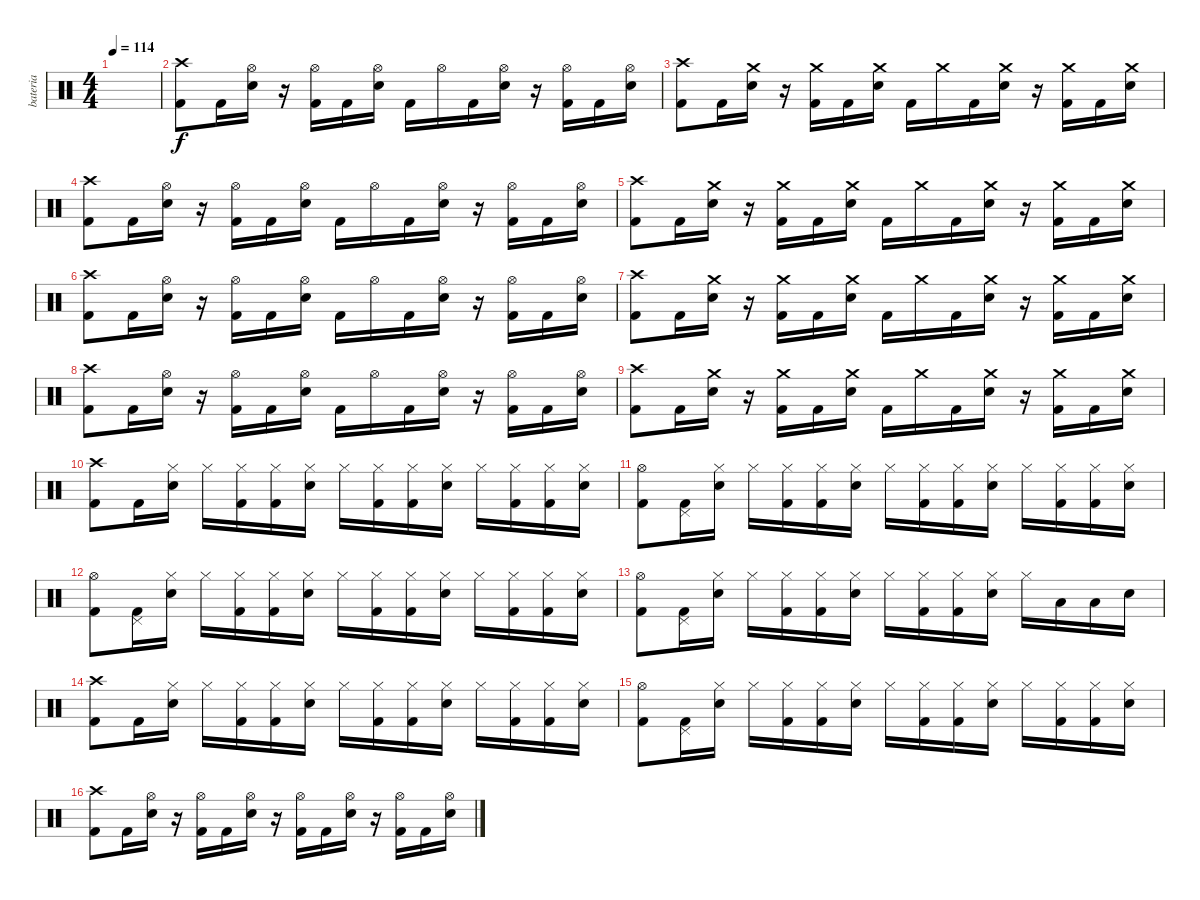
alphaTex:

\track ("bateria" "bateria") {instrument percussion}
\staff {score}
\articulation defaults
\ts (4 4)
\tempo 114
\clef neutral
\ks c
|
("Crash high (hit)" "Kick (hit) 2").8 "Kick (hit) 2".16 ("Hi-Hat (open)" "Electric Snare (hit)").16 r.16 ("Hi-Hat (open)" "Kick (hit) 2").16 "Kick (hit) 2".16 ("Hi-Hat (open)" "Electric Snare (hit)").16 "Kick (hit) 2".16 "Hi-Hat (open)".16 "Kick (hit) 2".16 ("Hi-Hat (open)" "Electric Snare (hit)").16 r.16 ("Hi-Hat (open)" "Kick (hit) 2").16 "Kick (hit) 2".16 ("Hi-Hat (open)" "Electric Snare (hit)").16 |
("Crash high (hit)" "Kick (hit) 2").8 "Kick (hit) 2".16 ("Crash medium (hit)" "Electric Snare (hit)").16 r.16 ("Crash medium (hit)" "Kick (hit) 2").16 "Kick (hit) 2".16 ("Crash medium (hit)" "Electric Snare (hit)").16 "Kick (hit) 2".16 "Crash medium (hit)".16 "Kick (hit) 2".16 ("Crash medium (hit)" "Electric Snare (hit)").16 r.16 ("Crash medium (hit)" "Kick (hit) 2").16 "Kick (hit) 2".16 ("Crash medium (hit)" "Electric Snare (hit)").16 |
("Crash high (hit)" "Kick (hit) 2").8 "Kick (hit) 2".16 ("Hi-Hat (open)" "Electric Snare (hit)").16 r.16 ("Hi-Hat (open)" "Kick (hit) 2").16 "Kick (hit) 2".16 ("Hi-Hat (open)" "Electric Snare (hit)").16 "Kick (hit) 2".16 "Hi-Hat (open)".16 "Kick (hit) 2".16 ("Hi-Hat (open)" "Electric Snare (hit)").16 r.16 ("Hi-Hat (open)" "Kick (hit) 2").16 "Kick (hit) 2".16 ("Hi-Hat (open)" "Electric Snare (hit)").16 |
("Crash high (hit)" "Kick (hit) 2").8 "Kick (hit) 2".16 ("Crash medium (hit)" "Electric Snare (hit)").16 r.16 ("Crash medium (hit)" "Kick (hit) 2").16 "Kick (hit) 2".16 ("Crash medium (hit)" "Electric Snare (hit)").16 "Kick (hit) 2".16 "Crash medium (hit)".16 "Kick (hit) 2".16 ("Crash medium (hit)" "Electric Snare (hit)").16 r.16 ("Crash medium (hit)" "Kick (hit) 2").16 "Kick (hit) 2".16 ("Crash medium (hit)" "Electric Snare (hit)").16 |
("Crash high (hit)" "Kick (hit) 2").8 "Kick (hit) 2".16 ("Hi-Hat (open)" "Electric Snare (hit)").16 r.16 ("Hi-Hat (open)" "Kick (hit) 2").16 "Kick (hit) 2".16 ("Hi-Hat (open)" "Electric Snare (hit)").16 "Kick (hit) 2".16 "Hi-Hat (open)".16 "Kick (hit) 2".16 ("Hi-Hat (open)" "Electric Snare (hit)").16 r.16 ("Hi-Hat (open)" "Kick (hit) 2").16 "Kick (hit) 2".16 ("Hi-Hat (open)" "Electric Snare (hit)").16 |
("Crash high (hit)" "Kick (hit) 2").8 "Kick (hit) 2".16 ("Crash medium (hit)" "Electric Snare (hit)").16 r.16 ("Crash medium (hit)" "Kick (hit) 2").16 "Kick (hit) 2".16 ("Crash medium (hit)" "Electric Snare (hit)").16 "Kick (hit) 2".16 "Crash medium (hit)".16 "Kick (hit) 2".16 ("Crash medium (hit)" "Electric Snare (hit)").16 r.16 ("Crash medium (hit)" "Kick (hit) 2").16 "Kick (hit) 2".16 ("Crash medium (hit)" "Electric Snare (hit)").16 |
("Crash high (hit)" "Kick (hit) 2").8 "Kick (hit) 2".16 ("Hi-Hat (open)" "Electric Snare (hit)").16 r.16 ("Hi-Hat (open)" "Kick (hit) 2").16 "Kick (hit) 2".16 ("Hi-Hat (open)" "Electric Snare (hit)").16 "Kick (hit) 2".16 "Hi-Hat (open)".16 "Kick (hit) 2".16 ("Hi-Hat (open)" "Electric Snare (hit)").16 r.16 ("Hi-Hat (open)" "Kick (hit) 2").16 "Kick (hit) 2".16 ("Hi-Hat (open)" "Electric Snare (hit)").16 |
("Crash high (hit)" "Kick (hit) 2").8 "Kick (hit) 2".16 ("Crash medium (hit)" "Electric Snare (hit)").16 r.16 ("Crash medium (hit)" "Kick (hit) 2").16 "Kick (hit) 2".16 ("Crash medium (hit)" "Electric Snare (hit)").16 "Kick (hit) 2".16 "Crash medium (hit)".16 "Kick (hit) 2".16 ("Crash medium (hit)" "Electric Snare (hit)").16 r.16 ("Crash medium (hit)" "Kick (hit) 2").16 "Kick (hit) 2".16 ("Crash medium (hit)" "Electric Snare (hit)").16 |
("Crash high (hit)" "Kick (hit) 2").8 "Kick (hit) 2".16 ("Hi-Hat (closed)" "Electric Snare (hit)").16 "Hi-Hat (closed)".16 ("Hi-Hat (closed)" "Kick (hit) 2").16 ("Hi-Hat (closed)" "Kick (hit) 2").16 ("Hi-Hat (closed)" "Electric Snare (hit)").16 "Hi-Hat (closed)".16 ("Hi-Hat (closed)" "Kick (hit) 2").16 ("Hi-Hat (closed)" "Kick (hit) 2").16 ("Hi-Hat (closed)" "Electric Snare (hit)").16 "Hi-Hat (closed)".16 ("Hi-Hat (closed)" "Kick (hit) 2").16 ("Hi-Hat (closed)" "Kick (hit) 2").16 ("Hi-Hat (closed)" "Electric Snare (hit)").16 |
("Hi-Hat (open)" "Kick (hit) 2").8 ("Pedal Hi-Hat (hit)" "Kick (hit) 2").16 ("Hi-Hat (closed)" "Electric Snare (hit)").16 "Hi-Hat (closed)".16 ("Hi-Hat (closed)" "Kick (hit) 2").16 ("Hi-Hat (closed)" "Kick (hit) 2").16 ("Hi-Hat (closed)" "Electric Snare (hit)").16 "Hi-Hat (closed)".16 ("Hi-Hat (closed)" "Kick (hit) 2").16 ("Hi-Hat (closed)" "Kick (hit) 2").16 ("Hi-Hat (closed)" "Electric Snare (hit)").16 "Hi-Hat (closed)".16 ("Hi-Hat (closed)" "Kick (hit) 2").16 ("Hi-Hat (closed)" "Kick (hit) 2").16 ("Hi-Hat (closed)" "Electric Snare (hit)").16 |
("Hi-Hat (open)" "Kick (hit) 2").8 ("Pedal Hi-Hat (hit)" "Kick (hit) 2").16 ("Hi-Hat (closed)" "Electric Snare (hit)").16 "Hi-Hat (closed)".16 ("Hi-Hat (closed)" "Kick (hit) 2").16 ("Hi-Hat (closed)" "Kick (hit) 2").16 ("Hi-Hat (closed)" "Electric Snare (hit)").16 "Hi-Hat (closed)".16 ("Hi-Hat (closed)" "Kick (hit) 2").16 ("Hi-Hat (closed)" "Kick (hit) 2").16 ("Hi-Hat (closed)" "Electric Snare (hit)").16 "Hi-Hat (closed)".16 ("Hi-Hat (closed)" "Kick (hit) 2").16 ("Hi-Hat (closed)" "Kick (hit) 2").16 ("Hi-Hat (closed)" "Electric Snare (hit)").16 |
("Hi-Hat (open)" "Kick (hit) 2").8 ("Pedal Hi-Hat (hit)" "Kick (hit) 2").16 ("Hi-Hat (closed)" "Electric Snare (hit)").16 "Hi-Hat (closed)".16 ("Hi-Hat (closed)" "Kick (hit) 2").16 ("Hi-Hat (closed)" "Kick (hit) 2").16 ("Hi-Hat (closed)" "Electric Snare (hit)").16 "Hi-Hat (closed)".16 ("Hi-Hat (closed)" "Kick (hit) 2").16 ("Hi-Hat (closed)" "Kick (hit) 2").16 ("Hi-Hat (closed)" "Electric Snare (hit)").16 "Hi-Hat (closed)".16 "Low Tom (hit)".16 "Low Tom (hit)".16 "Electric Snare (hit)".16 |
("Crash high (hit)" "Kick (hit) 2").8 "Kick (hit) 2".16 ("Hi-Hat (closed)" "Electric Snare (hit)").16 "Hi-Hat (closed)".16 ("Hi-Hat (closed)" "Kick (hit) 2").16 ("Hi-Hat (closed)" "Kick (hit) 2").16 ("Hi-Hat (closed)" "Electric Snare (hit)").16 "Hi-Hat (closed)".16 ("Hi-Hat (closed)" "Kick (hit) 2").16 ("Hi-Hat (closed)" "Kick (hit) 2").16 ("Hi-Hat (closed)" "Electric Snare (hit)").16 "Hi-Hat (closed)".16 ("Hi-Hat (closed)" "Kick (hit) 2").16 ("Hi-Hat (closed)" "Kick (hit) 2").16 ("Hi-Hat (closed)" "Electric Snare (hit)").16 |
("Hi-Hat (open)" "Kick (hit) 2").8 ("Pedal Hi-Hat (hit)" "Kick (hit) 2").16 ("Hi-Hat (closed)" "Electric Snare (hit)").16 "Hi-Hat (closed)".16 ("Hi-Hat (closed)" "Kick (hit) 2").16 ("Hi-Hat (closed)" "Kick (hit) 2").16 ("Hi-Hat (closed)" "Electric Snare (hit)").16 "Hi-Hat (closed)".16 ("Hi-Hat (closed)" "Kick (hit) 2").16 ("Hi-Hat (closed)" "Kick (hit) 2").16 ("Hi-Hat (closed)" "Electric Snare (hit)").16 "Hi-Hat (closed)".16 ("Hi-Hat (closed)" "Kick (hit) 2").16 ("Hi-Hat (closed)" "Kick (hit) 2").16 ("Hi-Hat (closed)" "Electric Snare (hit)").16 |
("Crash high (hit)" "Kick (hit) 2").8 "Kick (hit) 2".16 ("Hi-Hat (open)" "Electric Snare (hit)").16 r.16 ("Hi-Hat (open)" "Kick (hit) 2").16 "Kick (hit) 2".16 ("Hi-Hat (open)" "Electric Snare (hit)").16 r.16 ("Hi-Hat (open)" "Kick (hit) 2").16 "Kick (hit) 2".16 ("Hi-Hat (open)" "Electric Snare (hit)").16 r.16 ("Hi-Hat (open)" "Kick (hit) 2").16 "Kick (hit) 2".16 ("Hi-Hat (open)" "Electric Snare (hit)").16
